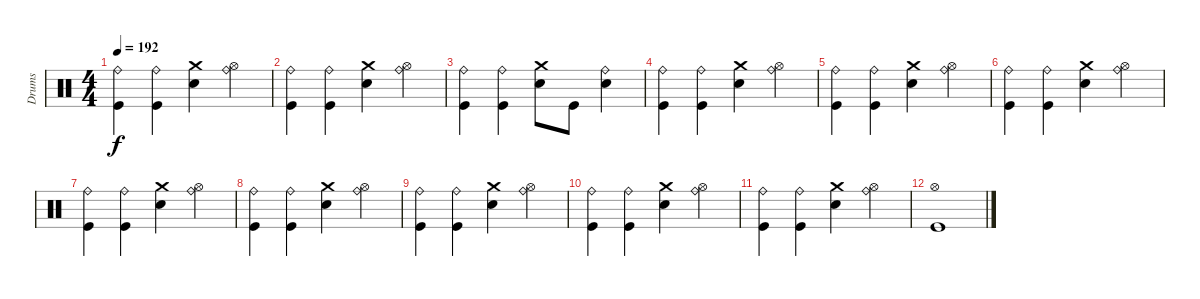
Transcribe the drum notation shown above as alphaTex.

\track ("Drums" "Drums") {instrument percussion}
\staff {score}
\articulation defaults
\ts (4 4)
\tempo 192
\clef neutral
\ks c
("Kick (hit)" "Ride (bell)").4{dy f} ("Kick (hit)" "Ride (bell)").4 ("Snare (hit) 2" "Crash medium (hit)").4 ("Hi-Hat (open)" "Ride (bell)").4 |
("Kick (hit)" "Ride (bell)").4 ("Kick (hit)" "Ride (bell)").4 ("Snare (hit) 2" "Crash medium (hit)").4 ("Hi-Hat (open)" "Ride (bell)").4 |
("Kick (hit)" "Ride (bell)").4 ("Kick (hit)" "Ride (bell)").4 ("Snare (hit) 2" "Crash medium (hit)").8 "Kick (hit)".8 ("Snare (hit) 2" "Ride (bell)").4 |
("Kick (hit)" "Ride (bell)").4 ("Kick (hit)" "Ride (bell)").4 ("Snare (hit) 2" "Crash medium (hit)").4 ("Hi-Hat (open)" "Ride (bell)").4 |
("Kick (hit)" "Ride (bell)").4 ("Kick (hit)" "Ride (bell)").4 ("Snare (hit) 2" "Crash medium (hit)").4 ("Hi-Hat (open)" "Ride (bell)").4 |
("Kick (hit)" "Ride (bell)").4 ("Kick (hit)" "Ride (bell)").4 ("Snare (hit) 2" "Crash medium (hit)").4 ("Hi-Hat (open)" "Ride (bell)").4 |
("Kick (hit)" "Ride (bell)").4 ("Kick (hit)" "Ride (bell)").4 ("Snare (hit) 2" "Crash medium (hit)").4 ("Hi-Hat (open)" "Ride (bell)").4 |
("Kick (hit)" "Ride (bell)").4 ("Kick (hit)" "Ride (bell)").4 ("Snare (hit) 2" "Crash medium (hit)").4 ("Hi-Hat (open)" "Ride (bell)").4 |
("Kick (hit)" "Ride (bell)").4 ("Kick (hit)" "Ride (bell)").4 ("Snare (hit) 2" "Crash medium (hit)").4 ("Hi-Hat (open)" "Ride (bell)").4 |
("Kick (hit)" "Ride (bell)").4 ("Kick (hit)" "Ride (bell)").4 ("Snare (hit) 2" "Crash medium (hit)").4 ("Hi-Hat (open)" "Ride (bell)").4 |
("Kick (hit)" "Ride (bell)").4 ("Kick (hit)" "Ride (bell)").4 ("Snare (hit) 2" "Crash medium (hit)").4 ("Hi-Hat (open)" "Ride (bell)").4 |
("Kick (hit)" "Hi-Hat (open)").1
